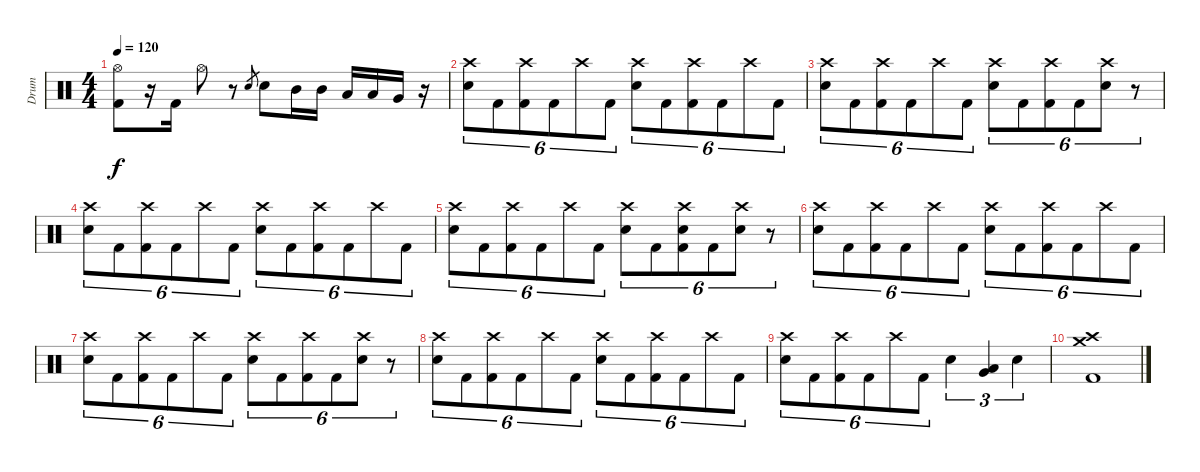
\track ("Drum" "Drum") {instrument percussion}
\staff {score}
\articulation defaults
\ts (4 4)
\tempo 120
\clef neutral
\ks c
("Hi-Hat (open)" "Kick (hit) 2").8{dy f} r.16 "Kick (hit) 2".16 "Hi-Hat (open)".8 r.8 "Electric Snare (hit)".8{gr} "Electric Snare (hit)".8 "Mid Tom (hit)".16 "Mid Tom (hit)".16 "Low Tom (hit)".16 "Low Tom (hit)".16 "Very Low Tom (hit)".16 r.16 |
("Crash high (hit)" "Electric Snare (hit)").8{tu (6 4)} "Kick (hit) 2".8{tu (6 4)} ("Crash high (hit)" "Kick (hit) 2").8{tu (6 4)} "Kick (hit) 2".8{tu (6 4)} "Crash high (hit)".8{tu (6 4)} "Kick (hit) 2".8{tu (6 4)} ("Crash high (hit)" "Electric Snare (hit)").8{tu (6 4)} "Kick (hit) 2".8{tu (6 4)} ("Crash high (hit)" "Kick (hit) 2").8{tu (6 4)} "Kick (hit) 2".8{tu (6 4)} "Crash high (hit)".8{tu (6 4)} "Kick (hit) 2".8{tu (6 4)} |
("Crash high (hit)" "Electric Snare (hit)").8{tu (6 4)} "Kick (hit) 2".8{tu (6 4)} ("Crash high (hit)" "Kick (hit) 2").8{tu (6 4)} "Kick (hit) 2".8{tu (6 4)} "Crash high (hit)".8{tu (6 4)} "Kick (hit) 2".8{tu (6 4)} ("Crash high (hit)" "Electric Snare (hit)").8{tu (6 4)} "Kick (hit) 2".8{tu (6 4)} ("Crash high (hit)" "Kick (hit) 2").8{tu (6 4)} "Kick (hit) 2".8{tu (6 4)} ("Crash high (hit)" "Electric Snare (hit)").8{tu (6 4)} r.8{tu (6 4)} |
("Crash high (hit)" "Electric Snare (hit)").8{tu (6 4)} "Kick (hit) 2".8{tu (6 4)} ("Crash high (hit)" "Kick (hit) 2").8{tu (6 4)} "Kick (hit) 2".8{tu (6 4)} "Crash high (hit)".8{tu (6 4)} "Kick (hit) 2".8{tu (6 4)} ("Crash high (hit)" "Electric Snare (hit)").8{tu (6 4)} "Kick (hit) 2".8{tu (6 4)} ("Crash high (hit)" "Kick (hit) 2").8{tu (6 4)} "Kick (hit) 2".8{tu (6 4)} "Crash high (hit)".8{tu (6 4)} "Kick (hit) 2".8{tu (6 4)} |
("Crash high (hit)" "Electric Snare (hit)").8{tu (6 4)} "Kick (hit) 2".8{tu (6 4)} ("Crash high (hit)" "Kick (hit) 2").8{tu (6 4)} "Kick (hit) 2".8{tu (6 4)} "Crash high (hit)".8{tu (6 4)} "Kick (hit) 2".8{tu (6 4)} ("Crash high (hit)" "Electric Snare (hit)").8{tu (6 4)} "Kick (hit) 2".8{tu (6 4)} ("Crash high (hit)" "Electric Snare (hit)" "Kick (hit) 2").8{tu (6 4)} "Kick (hit) 2".8{tu (6 4)} ("Crash high (hit)" "Electric Snare (hit)").8{tu (6 4)} r.8{tu (6 4)} |
("Crash high (hit)" "Electric Snare (hit)").8{tu (6 4)} "Kick (hit) 2".8{tu (6 4)} ("Crash high (hit)" "Kick (hit) 2").8{tu (6 4)} "Kick (hit) 2".8{tu (6 4)} "Crash high (hit)".8{tu (6 4)} "Kick (hit) 2".8{tu (6 4)} ("Crash high (hit)" "Electric Snare (hit)").8{tu (6 4)} "Kick (hit) 2".8{tu (6 4)} ("Crash high (hit)" "Kick (hit) 2").8{tu (6 4)} "Kick (hit) 2".8{tu (6 4)} "Crash high (hit)".8{tu (6 4)} "Kick (hit) 2".8{tu (6 4)} |
("Crash high (hit)" "Electric Snare (hit)").8{tu (6 4)} "Kick (hit) 2".8{tu (6 4)} ("Crash high (hit)" "Kick (hit) 2").8{tu (6 4)} "Kick (hit) 2".8{tu (6 4)} "Crash high (hit)".8{tu (6 4)} "Kick (hit) 2".8{tu (6 4)} ("Crash high (hit)" "Electric Snare (hit)").8{tu (6 4)} "Kick (hit) 2".8{tu (6 4)} ("Crash high (hit)" "Kick (hit) 2").8{tu (6 4)} "Kick (hit) 2".8{tu (6 4)} ("Crash high (hit)" "Electric Snare (hit)").8{tu (6 4)} r.8{tu (6 4)} |
("Crash high (hit)" "Electric Snare (hit)").8{tu (6 4)} "Kick (hit) 2".8{tu (6 4)} ("Crash high (hit)" "Kick (hit) 2").8{tu (6 4)} "Kick (hit) 2".8{tu (6 4)} "Crash high (hit)".8{tu (6 4)} "Kick (hit) 2".8{tu (6 4)} ("Crash high (hit)" "Electric Snare (hit)").8{tu (6 4)} "Kick (hit) 2".8{tu (6 4)} ("Crash high (hit)" "Kick (hit) 2").8{tu (6 4)} "Kick (hit) 2".8{tu (6 4)} "Crash high (hit)".8{tu (6 4)} "Kick (hit) 2".8{tu (6 4)} |
("Crash high (hit)" "Electric Snare (hit)").8{tu (6 4)} "Kick (hit) 2".8{tu (6 4)} ("Crash high (hit)" "Kick (hit) 2").8{tu (6 4)} "Kick (hit) 2".8{tu (6 4)} "Crash high (hit)".8{tu (6 4)} "Kick (hit) 2".8{tu (6 4)} "Electric Snare (hit)".4{tu (3 2)} ("Low Tom (hit)" "Very Low Tom (hit)").4{tu (3 2)} "Electric Snare (hit)".4{tu (3 2)} |
("Crash high (hit)" "Crash medium (hit)" "Kick (hit) 2").1
